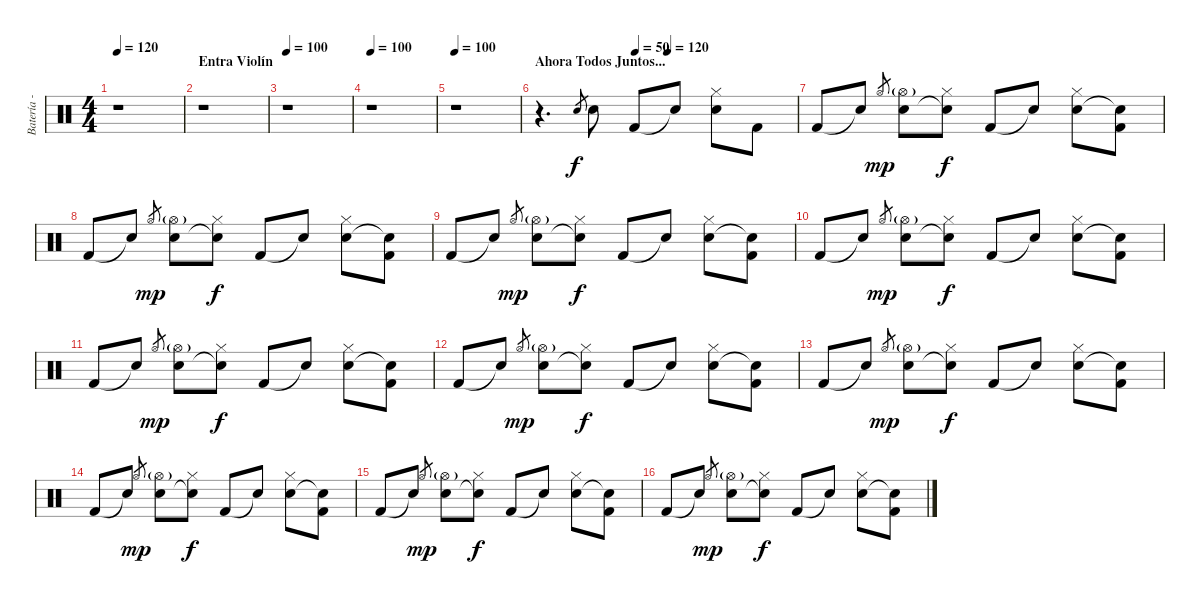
\track ("Batería - Txus" "Batería - ") {instrument percussion}
\staff {score}
\articulation defaults
\ts (4 4)
\tempo 120
\clef neutral
\ks c
r.1{dy f} |
\section ("" "Entra Violín")
r.1 |
\tempo 100
r.1 |
\tempo 100
r.1 |
\tempo 100
r.1 |
\section ("" "Ahora Todos Juntos...")
\tempo (50 0.375)
\tempo (120 0.5)
r.4{d} "Snare (hit) 2".8{gr} "Snare (hit) 2".8 "Kick (hit) 2".8 "Snare (hit)"{t}.8 ("Snare (hit) 2" "Hi-Hat (closed)").8 "Kick (hit) 2".8 |
"Kick (hit) 2".8 "Snare (hit)"{t}.8 "Hi-Hat (open)".8{gr dy mp} ("Snare (hit) 2" "Hi-Hat (open)"{g}).8 ("Snare (hit)"{t} "Hi-Hat (closed)").8{dy f} "Kick (hit) 2".8 "Snare (hit)"{t}.8 ("Snare (hit) 2" "Hi-Hat (closed)").8 ("Snare (hit)"{t} "Kick (hit) 2").8 |
"Kick (hit) 2".8 "Snare (hit)"{t}.8 "Hi-Hat (open)".8{gr dy mp} ("Snare (hit) 2" "Hi-Hat (open)"{g}).8 ("Snare (hit)"{t} "Hi-Hat (closed)").8{dy f} "Kick (hit) 2".8 "Snare (hit)"{t}.8 ("Snare (hit) 2" "Hi-Hat (closed)").8 ("Snare (hit)"{t} "Kick (hit) 2").8 |
"Kick (hit) 2".8 "Snare (hit)"{t}.8 "Hi-Hat (open)".8{gr dy mp} ("Snare (hit) 2" "Hi-Hat (open)"{g}).8 ("Snare (hit)"{t} "Hi-Hat (closed)").8{dy f} "Kick (hit) 2".8 "Snare (hit)"{t}.8 ("Snare (hit) 2" "Hi-Hat (closed)").8 ("Snare (hit)"{t} "Kick (hit) 2").8 |
"Kick (hit) 2".8 "Snare (hit)"{t}.8 "Hi-Hat (open)".8{gr dy mp} ("Snare (hit) 2" "Hi-Hat (open)"{g}).8 ("Snare (hit)"{t} "Hi-Hat (closed)").8{dy f} "Kick (hit) 2".8 "Snare (hit)"{t}.8 ("Snare (hit) 2" "Hi-Hat (closed)").8 ("Snare (hit)"{t} "Kick (hit) 2").8 |
"Kick (hit) 2".8 "Snare (hit)"{t}.8 "Hi-Hat (open)".8{gr dy mp} ("Snare (hit) 2" "Hi-Hat (open)"{g}).8 ("Snare (hit)"{t} "Hi-Hat (closed)").8{dy f} "Kick (hit) 2".8 "Snare (hit)"{t}.8 ("Snare (hit) 2" "Hi-Hat (closed)").8 ("Snare (hit)"{t} "Kick (hit) 2").8 |
"Kick (hit) 2".8 "Snare (hit)"{t}.8 "Hi-Hat (open)".8{gr dy mp} ("Snare (hit) 2" "Hi-Hat (open)"{g}).8 ("Snare (hit)"{t} "Hi-Hat (closed)").8{dy f} "Kick (hit) 2".8 "Snare (hit)"{t}.8 ("Snare (hit) 2" "Hi-Hat (closed)").8 ("Snare (hit)"{t} "Kick (hit) 2").8 |
"Kick (hit) 2".8 "Snare (hit)"{t}.8 "Hi-Hat (open)".8{gr dy mp} ("Snare (hit) 2" "Hi-Hat (open)"{g}).8 ("Snare (hit)"{t} "Hi-Hat (closed)").8{dy f} "Kick (hit) 2".8 "Snare (hit)"{t}.8 ("Snare (hit) 2" "Hi-Hat (closed)").8 ("Snare (hit)"{t} "Kick (hit) 2").8 |
"Kick (hit) 2".8 "Snare (hit)"{t}.8 "Hi-Hat (open)".8{gr dy mp} ("Snare (hit) 2" "Hi-Hat (open)"{g}).8 ("Snare (hit)"{t} "Hi-Hat (closed)").8{dy f} "Kick (hit) 2".8 "Snare (hit)"{t}.8 ("Snare (hit) 2" "Hi-Hat (closed)").8 ("Snare (hit)"{t} "Kick (hit) 2").8 |
"Kick (hit) 2".8 "Snare (hit)"{t}.8 "Hi-Hat (open)".8{gr dy mp} ("Snare (hit) 2" "Hi-Hat (open)"{g}).8 ("Snare (hit)"{t} "Hi-Hat (closed)").8{dy f} "Kick (hit) 2".8 "Snare (hit)"{t}.8 ("Snare (hit) 2" "Hi-Hat (closed)").8 ("Snare (hit)"{t} "Kick (hit) 2").8 |
"Kick (hit) 2".8 "Snare (hit)"{t}.8 "Hi-Hat (open)".8{gr dy mp} ("Snare (hit) 2" "Hi-Hat (open)"{g}).8 ("Snare (hit)"{t} "Hi-Hat (closed)").8{dy f} "Kick (hit) 2".8 "Snare (hit)"{t}.8 ("Snare (hit) 2" "Hi-Hat (closed)").8 ("Snare (hit)"{t} "Kick (hit) 2").8
